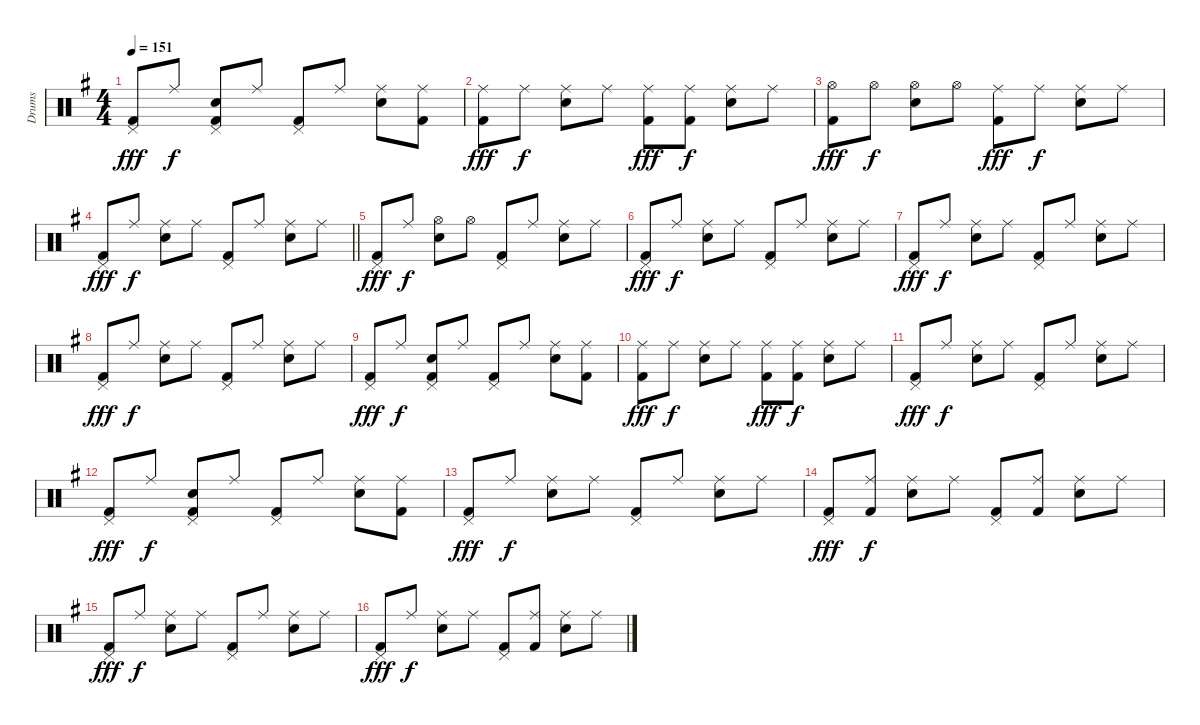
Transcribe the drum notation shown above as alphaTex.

\track ("Drums " "Drums ") {instrument percussion}
\staff {score}
\articulation defaults
\ts (4 4)
\tempo 151
\clef neutral
\ks eminor
("Pedal Hi-Hat (hit)" "Kick (hit) 2").8{dy fff} "Ride (middle)".8{dy f} ("Pedal Hi-Hat (hit)" "Snare (hit) 2" "Kick (hit) 2").8 "Ride (middle)".8 ("Pedal Hi-Hat (hit)" "Kick (hit) 2").8 "Ride (middle)".8 ("Ride (middle)" "Snare (hit) 2").8 ("Kick (hit) 2" "Ride (middle)").8 |
("Ride (middle)" "Kick (hit) 2").8{dy fff} "Ride (middle)".8{dy f} ("Snare (hit) 2" "Ride (middle)").8 "Ride (middle)".8 ("Kick (hit) 2" "Ride (middle)").8{dy fff} ("Kick (hit) 2" "Ride (middle)").8{dy f} ("Snare (hit) 2" "Ride (middle)").8 "Ride (middle)".8 |
("Kick (hit) 2" "Hi-Hat (open)").8{dy fff} "Hi-Hat (open)".8{dy f} ("Hi-Hat (open)" "Snare (hit) 2").8 "Hi-Hat (open)".8 ("Kick (hit) 2" "Ride (middle)").8{dy fff} "Ride (middle)".8{dy f} ("Snare (hit) 2" "Ride (middle)").8 "Ride (middle)".8 |
\barLineRight lightlight
("Pedal Hi-Hat (hit)" "Kick (hit) 2").8{dy fff} "Ride (middle)".8{dy f} ("Snare (hit) 2" "Ride (middle)").8 "Ride (middle)".8 ("Pedal Hi-Hat (hit)" "Kick (hit) 2").8 "Ride (middle)".8 ("Snare (hit) 2" "Ride (middle)").8 "Ride (middle)".8 |
("Pedal Hi-Hat (hit)" "Kick (hit) 2").8{dy fff} "Ride (middle)".8{dy f} ("Hi-Hat (open)" "Snare (hit) 2").8 "Hi-Hat (open)".8 ("Pedal Hi-Hat (hit)" "Kick (hit) 2").8 "Ride (middle)".8 ("Snare (hit) 2" "Ride (middle)").8 "Ride (middle)".8 |
("Pedal Hi-Hat (hit)" "Kick (hit) 2").8{dy fff} "Ride (middle)".8{dy f} ("Snare (hit) 2" "Ride (middle)").8 "Ride (middle)".8 ("Pedal Hi-Hat (hit)" "Kick (hit) 2").8 "Ride (middle)".8 ("Snare (hit) 2" "Ride (middle)").8 "Ride (middle)".8 |
("Pedal Hi-Hat (hit)" "Kick (hit) 2").8{dy fff} "Ride (middle)".8{dy f} ("Snare (hit) 2" "Ride (middle)").8 "Ride (middle)".8 ("Pedal Hi-Hat (hit)" "Kick (hit) 2").8 "Ride (middle)".8 ("Snare (hit) 2" "Ride (middle)").8 "Ride (middle)".8 |
("Pedal Hi-Hat (hit)" "Kick (hit) 2").8{dy fff} "Ride (middle)".8{dy f} ("Snare (hit) 2" "Ride (middle)").8 "Ride (middle)".8 ("Pedal Hi-Hat (hit)" "Kick (hit) 2").8 "Ride (middle)".8 ("Snare (hit) 2" "Ride (middle)").8 "Ride (middle)".8 |
("Pedal Hi-Hat (hit)" "Kick (hit) 2").8{dy fff} "Ride (middle)".8{dy f} ("Pedal Hi-Hat (hit)" "Snare (hit) 2" "Kick (hit) 2").8 "Ride (middle)".8 ("Pedal Hi-Hat (hit)" "Kick (hit) 2").8 "Ride (middle)".8 ("Ride (middle)" "Snare (hit) 2").8 ("Kick (hit) 2" "Ride (middle)").8 |
("Ride (middle)" "Kick (hit) 2").8{dy fff} "Ride (middle)".8{dy f} ("Snare (hit) 2" "Ride (middle)").8 "Ride (middle)".8 ("Kick (hit) 2" "Ride (middle)").8{dy fff} ("Kick (hit) 2" "Ride (middle)").8{dy f} ("Snare (hit) 2" "Ride (middle)").8 "Ride (middle)".8 |
("Pedal Hi-Hat (hit)" "Kick (hit) 2").8{dy fff} "Ride (middle)".8{dy f} ("Snare (hit) 2" "Ride (middle)").8 "Ride (middle)".8 ("Pedal Hi-Hat (hit)" "Kick (hit) 2").8 "Ride (middle)".8 ("Snare (hit) 2" "Ride (middle)").8 "Ride (middle)".8 |
("Pedal Hi-Hat (hit)" "Kick (hit) 2").8{dy fff} "Ride (middle)".8{dy f} ("Pedal Hi-Hat (hit)" "Snare (hit) 2" "Kick (hit) 2").8 "Ride (middle)".8 ("Pedal Hi-Hat (hit)" "Kick (hit) 2").8 "Ride (middle)".8 ("Ride (middle)" "Snare (hit) 2").8 ("Kick (hit) 2" "Ride (middle)").8 |
("Pedal Hi-Hat (hit)" "Kick (hit) 2").8{dy fff} "Ride (middle)".8{dy f} ("Snare (hit) 2" "Ride (middle)").8 "Ride (middle)".8 ("Pedal Hi-Hat (hit)" "Kick (hit) 2").8 "Ride (middle)".8 ("Snare (hit) 2" "Ride (middle)").8 "Ride (middle)".8 |
("Pedal Hi-Hat (hit)" "Kick (hit) 2").8{dy fff} ("Kick (hit) 2" "Ride (middle)").8{dy f} ("Snare (hit) 2" "Ride (middle)").8 "Ride (middle)".8 ("Pedal Hi-Hat (hit)" "Kick (hit) 2").8 ("Kick (hit) 2" "Ride (middle)").8 ("Snare (hit) 2" "Ride (middle)").8 "Ride (middle)".8 |
("Pedal Hi-Hat (hit)" "Kick (hit) 2").8{dy fff} "Ride (middle)".8{dy f} ("Snare (hit) 2" "Ride (middle)").8 "Ride (middle)".8 ("Pedal Hi-Hat (hit)" "Kick (hit) 2").8 "Ride (middle)".8 ("Snare (hit) 2" "Ride (middle)").8 "Ride (middle)".8 |
("Pedal Hi-Hat (hit)" "Kick (hit) 2").8{dy fff} "Ride (middle)".8{dy f} ("Snare (hit) 2" "Ride (middle)").8 "Ride (middle)".8 ("Pedal Hi-Hat (hit)" "Kick (hit) 2").8 ("Kick (hit) 2" "Ride (middle)").8 ("Snare (hit) 2" "Ride (middle)").8 "Ride (middle)".8
